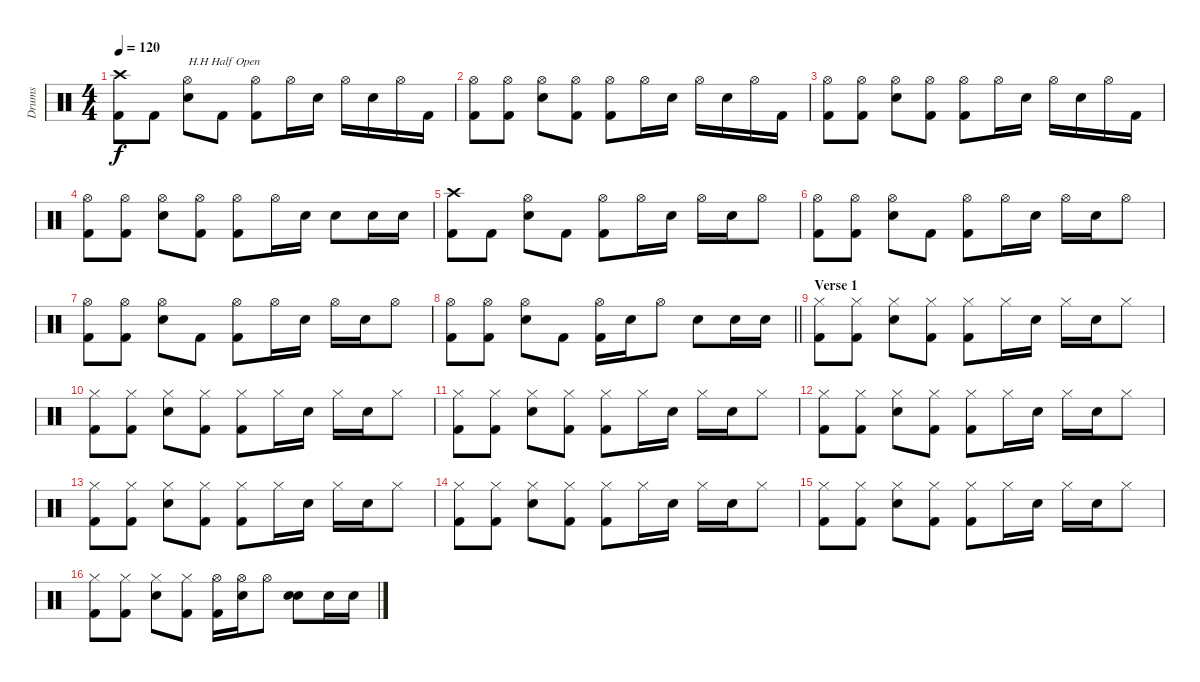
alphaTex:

\track ("Drums" "Drums") {instrument percussion}
\staff {score}
\articulation defaults
\ts (4 4)
\tempo 120
\clef neutral
\ks c
("Crash high (hit)" "Kick (hit) 2").8{dy f} "Kick (hit) 2".8 ("Hi-Hat (open)" "Electric Snare (hit)").8{txt "H.H Half Open"} "Kick (hit) 2".8 ("Hi-Hat (open)" "Kick (hit) 2").8 "Hi-Hat (open)".16 "Electric Snare (hit)".16 "Hi-Hat (open)".16 "Electric Snare (hit)".16 "Hi-Hat (open)".16 "Kick (hit) 2".16 |
("Hi-Hat (open)" "Kick (hit) 2").8 ("Hi-Hat (open)" "Kick (hit) 2").8 ("Hi-Hat (open)" "Electric Snare (hit)").8 ("Hi-Hat (open)" "Kick (hit) 2").8 ("Hi-Hat (open)" "Kick (hit) 2").8 "Hi-Hat (open)".16 "Electric Snare (hit)".16 "Hi-Hat (open)".16 "Electric Snare (hit)".16 "Hi-Hat (open)".16 "Kick (hit) 2".16 |
("Hi-Hat (open)" "Kick (hit) 2").8 ("Hi-Hat (open)" "Kick (hit) 2").8 ("Hi-Hat (open)" "Electric Snare (hit)").8 ("Hi-Hat (open)" "Kick (hit) 2").8 ("Hi-Hat (open)" "Kick (hit) 2").8 "Hi-Hat (open)".16 "Electric Snare (hit)".16 "Hi-Hat (open)".16 "Electric Snare (hit)".16 "Hi-Hat (open)".16 "Kick (hit) 2".16 |
("Hi-Hat (open)" "Kick (hit) 2").8 ("Hi-Hat (open)" "Kick (hit) 2").8 ("Hi-Hat (open)" "Electric Snare (hit)").8 ("Hi-Hat (open)" "Kick (hit) 2").8 ("Hi-Hat (open)" "Kick (hit) 2").8 "Hi-Hat (open)".16 "Electric Snare (hit)".16 "Electric Snare (hit)".8 "Electric Snare (hit)".16 "Electric Snare (hit)".16 |
("Crash high (hit)" "Kick (hit) 2").8 "Kick (hit) 2".8 ("Hi-Hat (open)" "Electric Snare (hit)").8 "Kick (hit) 2".8 ("Hi-Hat (open)" "Kick (hit) 2").8 "Hi-Hat (open)".16 "Electric Snare (hit)".16 "Hi-Hat (open)".16 "Electric Snare (hit)".16 "Hi-Hat (open)".8 |
("Hi-Hat (open)" "Kick (hit) 2").8 ("Hi-Hat (open)" "Kick (hit) 2").8 ("Hi-Hat (open)" "Electric Snare (hit)").8 "Kick (hit) 2".8 ("Hi-Hat (open)" "Kick (hit) 2").8 "Hi-Hat (open)".16 "Electric Snare (hit)".16 "Hi-Hat (open)".16 "Electric Snare (hit)".16 "Hi-Hat (open)".8 |
("Hi-Hat (open)" "Kick (hit) 2").8 ("Hi-Hat (open)" "Kick (hit) 2").8 ("Hi-Hat (open)" "Electric Snare (hit)").8 "Kick (hit) 2".8 ("Hi-Hat (open)" "Kick (hit) 2").8 "Hi-Hat (open)".16 "Electric Snare (hit)".16 "Hi-Hat (open)".16 "Electric Snare (hit)".16 "Hi-Hat (open)".8 |
\barLineRight lightlight
("Hi-Hat (open)" "Kick (hit) 2").8 ("Hi-Hat (open)" "Kick (hit) 2").8 ("Hi-Hat (open)" "Electric Snare (hit)").8 "Kick (hit) 2".8 ("Hi-Hat (open)" "Kick (hit) 2").16 "Electric Snare (hit)".16 "Hi-Hat (open)".8 "Electric Snare (hit)".8 "Electric Snare (hit)".16 "Electric Snare (hit)".16 |
\section ("" "Verse 1")
("Hi-Hat (closed)" "Kick (hit) 2").8 ("Hi-Hat (closed)" "Kick (hit) 2").8 ("Hi-Hat (closed)" "Electric Snare (hit)").8 ("Hi-Hat (closed)" "Kick (hit) 2").8 ("Hi-Hat (closed)" "Kick (hit) 2").8 "Hi-Hat (closed)".16 "Electric Snare (hit)".16 "Hi-Hat (closed)".16 "Electric Snare (hit)".16 "Hi-Hat (closed)".8 |
("Hi-Hat (closed)" "Kick (hit) 2").8 ("Hi-Hat (closed)" "Kick (hit) 2").8 ("Hi-Hat (closed)" "Electric Snare (hit)").8 ("Hi-Hat (closed)" "Kick (hit) 2").8 ("Hi-Hat (closed)" "Kick (hit) 2").8 "Hi-Hat (closed)".16 "Electric Snare (hit)".16 "Hi-Hat (closed)".16 "Electric Snare (hit)".16 "Hi-Hat (closed)".8 |
("Hi-Hat (closed)" "Kick (hit) 2").8 ("Hi-Hat (closed)" "Kick (hit) 2").8 ("Hi-Hat (closed)" "Electric Snare (hit)").8 ("Hi-Hat (closed)" "Kick (hit) 2").8 ("Hi-Hat (closed)" "Kick (hit) 2").8 "Hi-Hat (closed)".16 "Electric Snare (hit)".16 "Hi-Hat (closed)".16 "Electric Snare (hit)".16 "Hi-Hat (closed)".8 |
("Hi-Hat (closed)" "Kick (hit) 2").8 ("Hi-Hat (closed)" "Kick (hit) 2").8 ("Hi-Hat (closed)" "Electric Snare (hit)").8 ("Hi-Hat (closed)" "Kick (hit) 2").8 ("Hi-Hat (closed)" "Kick (hit) 2").8 "Hi-Hat (closed)".16 "Electric Snare (hit)".16 "Hi-Hat (closed)".16 "Electric Snare (hit)".16 "Hi-Hat (closed)".8 |
("Hi-Hat (closed)" "Kick (hit) 2").8 ("Hi-Hat (closed)" "Kick (hit) 2").8 ("Hi-Hat (closed)" "Electric Snare (hit)").8 ("Hi-Hat (closed)" "Kick (hit) 2").8 ("Hi-Hat (closed)" "Kick (hit) 2").8 "Hi-Hat (closed)".16 "Electric Snare (hit)".16 "Hi-Hat (closed)".16 "Electric Snare (hit)".16 "Hi-Hat (closed)".8 |
("Hi-Hat (closed)" "Kick (hit) 2").8 ("Hi-Hat (closed)" "Kick (hit) 2").8 ("Hi-Hat (closed)" "Electric Snare (hit)").8 ("Hi-Hat (closed)" "Kick (hit) 2").8 ("Hi-Hat (closed)" "Kick (hit) 2").8 "Hi-Hat (closed)".16 "Electric Snare (hit)".16 "Hi-Hat (closed)".16 "Electric Snare (hit)".16 "Hi-Hat (closed)".8 |
("Hi-Hat (closed)" "Kick (hit) 2").8 ("Hi-Hat (closed)" "Kick (hit) 2").8 ("Hi-Hat (closed)" "Electric Snare (hit)").8 ("Hi-Hat (closed)" "Kick (hit) 2").8 ("Hi-Hat (closed)" "Kick (hit) 2").8 "Hi-Hat (closed)".16 "Electric Snare (hit)".16 "Hi-Hat (closed)".16 "Electric Snare (hit)".16 "Hi-Hat (closed)".8 |
("Hi-Hat (closed)" "Kick (hit) 2").8 ("Hi-Hat (closed)" "Kick (hit) 2").8 ("Hi-Hat (closed)" "Electric Snare (hit)").8 ("Hi-Hat (closed)" "Kick (hit) 2").8 ("Hi-Hat (open)" "Kick (hit) 2").16 ("Hi-Hat (open)" "Electric Snare (hit)").16 "Hi-Hat (open)".8 ("Electric Snare (hit)" "Electric Snare (hit)").8 "Electric Snare (hit)".16 "Electric Snare (hit)".16
